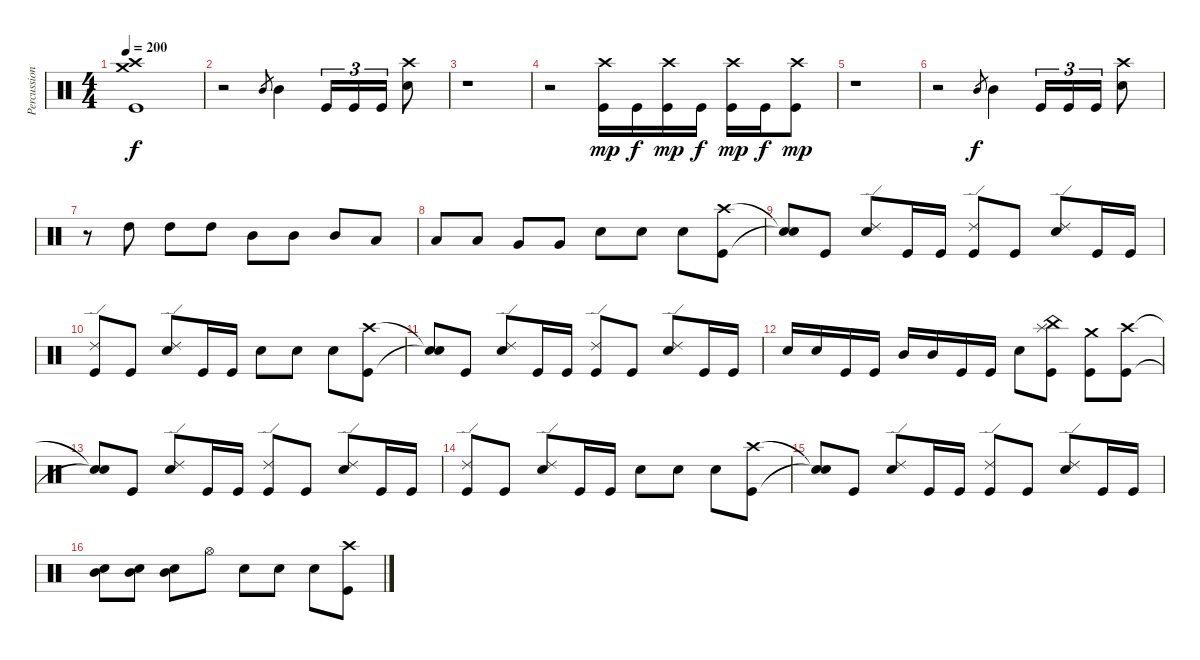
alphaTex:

\track ("Percussioni" "Percussion") {instrument percussion}
\staff {score}
\articulation defaults
\ts (4 4)
\tempo 200
\clef neutral
\ks c
("Crash medium (hit)" "Crash high (hit)" "Kick (hit)").1{dy f} |
r.2 "Mid Tom (hit)".8{gr} "Mid Tom (hit)".4 "Kick (hit)".16{tu (3 2)} "Kick (hit)".16{tu (3 2)} "Kick (hit)".16{tu (3 2)} ("Crash high (hit)" "Electric Snare (hit)").8 |
r.1 |
r.2 ("Crash high (hit)" "Kick (hit)").16{dy mp} "Kick (hit)".16{dy f} ("Crash high (hit)" "Kick (hit)").16{dy mp} "Kick (hit)".16{dy f} ("Crash high (hit)" "Kick (hit)").16{dy mp} "Kick (hit)".16{dy f} ("Crash high (hit)" "Kick (hit)").8{dy mp} |
r.1 |
r.2 "Mid Tom (hit)".8{gr dy f} "Mid Tom (hit)".4 "Kick (hit)".16{tu (3 2)} "Kick (hit)".16{tu (3 2)} "Kick (hit)".16{tu (3 2)} ("Crash high (hit)" "Electric Snare (hit)").8 |
r.8 "High Tom (hit)".8 "High Tom (hit)".8 "High Tom (hit)".8 "Mid Tom (hit)".8 "Mid Tom (hit)".8 "Mid Tom (hit)".8 "Low Tom (hit)".8 |
"Low Tom (hit)".8 "Low Tom (hit)".8 "Very Low Tom (hit)".8 "Very Low Tom (hit)".8 "Electric Snare (hit)".8 "Electric Snare (hit)".8 "Electric Snare (hit)".8 ("Crash high (hit)" "Kick (hit)").8 |
("Snare (hit)"{t} "Snare (hit)"{t}).8 "Kick (hit)".8 ("Ride (edge) 2" "Electric Snare (hit)").8 "Kick (hit)".16 "Kick (hit)".16 ("Ride (edge) 2" "Kick (hit)").8 "Kick (hit)".8 ("Ride (edge) 2" "Electric Snare (hit)").8 "Kick (hit)".16 "Kick (hit)".16 |
("Ride (edge) 2" "Kick (hit)").8 "Kick (hit)".8 ("Ride (edge) 2" "Electric Snare (hit)").8 "Kick (hit)".16 "Kick (hit)".16 "Electric Snare (hit)".8 "Electric Snare (hit)".8 "Electric Snare (hit)".8 ("Crash high (hit)" "Kick (hit)").8 |
("Snare (hit)"{t} "Snare (hit)"{t}).8 "Kick (hit)".8 ("Ride (edge) 2" "Electric Snare (hit)").8 "Kick (hit)".16 "Kick (hit)".16 ("Ride (edge) 2" "Kick (hit)").8 "Kick (hit)".8 ("Ride (edge) 2" "Electric Snare (hit)").8 "Kick (hit)".16 "Kick (hit)".16 |
"Electric Snare (hit)".16 "Electric Snare (hit)".16 "Kick (hit)".16 "Kick (hit)".16 "Mid Tom (hit)".16 "Mid Tom (hit)".16 "Kick (hit)".16 "Kick (hit)".16 "Electric Snare (hit)".8 ("Splash (hit)" "China (hit)" "Kick (hit)").8 ("Crash medium (hit)" "Kick (hit)").8 ("Crash high (hit)" "Kick (hit)").8 |
("Snare (hit)"{t} "Snare (hit)"{t}).8 "Kick (hit)".8 ("Ride (edge) 2" "Electric Snare (hit)").8 "Kick (hit)".16 "Kick (hit)".16 ("Ride (edge) 2" "Kick (hit)").8 "Kick (hit)".8 ("Ride (edge) 2" "Electric Snare (hit)").8 "Kick (hit)".16 "Kick (hit)".16 |
("Ride (edge) 2" "Kick (hit)").8 "Kick (hit)".8 ("Ride (edge) 2" "Electric Snare (hit)").8 "Kick (hit)".16 "Kick (hit)".16 "Electric Snare (hit)".8 "Electric Snare (hit)".8 "Electric Snare (hit)".8 ("Crash high (hit)" "Kick (hit)").8 |
("Snare (hit)"{t} "Snare (hit)"{t}).8 "Kick (hit)".8 ("Ride (edge) 2" "Electric Snare (hit)").8 "Kick (hit)".16 "Kick (hit)".16 ("Ride (edge) 2" "Kick (hit)").8 "Kick (hit)".8 ("Ride (edge) 2" "Electric Snare (hit)").8 "Kick (hit)".16 "Kick (hit)".16 |
("Mid Tom (hit)" "Electric Snare (hit)").8 ("Mid Tom (hit)" "Electric Snare (hit)").8 ("Mid Tom (hit)" "Electric Snare (hit)").8 "Hi-Hat (open)".8 "Electric Snare (hit)".8 "Electric Snare (hit)".8 "Electric Snare (hit)".8 ("Crash high (hit)" "Kick (hit)").8
